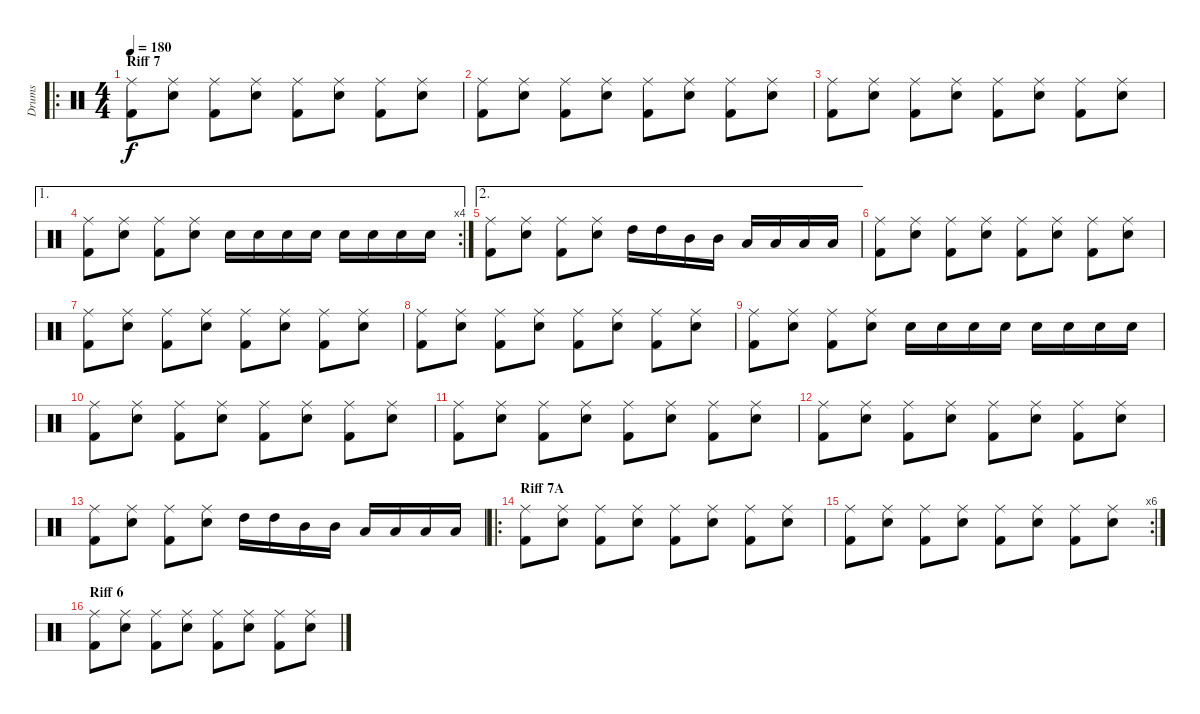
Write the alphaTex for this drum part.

\track ("Drums" "Drums") {instrument percussion}
\staff {score}
\articulation defaults
\ro
\ts (4 4)
\section ("" "Riff 7")
\tempo 180
\clef neutral
\ks c
("Ride (middle)" "Kick (hit) 2").8{dy f} ("Ride (middle)" "Snare (hit) 2").8 ("Ride (middle)" "Kick (hit) 2").8 ("Ride (middle)" "Snare (hit) 2").8 ("Ride (middle)" "Kick (hit) 2").8 ("Ride (middle)" "Snare (hit) 2").8 ("Ride (middle)" "Kick (hit) 2").8 ("Ride (middle)" "Snare (hit) 2").8 |
("Ride (middle)" "Kick (hit) 2").8 ("Ride (middle)" "Snare (hit) 2").8 ("Ride (middle)" "Kick (hit) 2").8 ("Ride (middle)" "Snare (hit) 2").8 ("Ride (middle)" "Kick (hit) 2").8 ("Ride (middle)" "Snare (hit) 2").8 ("Ride (middle)" "Kick (hit) 2").8 ("Ride (middle)" "Snare (hit) 2").8 |
("Ride (middle)" "Kick (hit) 2").8 ("Ride (middle)" "Snare (hit) 2").8 ("Ride (middle)" "Kick (hit) 2").8 ("Ride (middle)" "Snare (hit) 2").8 ("Ride (middle)" "Kick (hit) 2").8 ("Ride (middle)" "Snare (hit) 2").8 ("Ride (middle)" "Kick (hit) 2").8 ("Ride (middle)" "Snare (hit) 2").8 |
\ae 1
\rc 4
("Ride (middle)" "Kick (hit) 2").8 ("Ride (middle)" "Snare (hit) 2").8 ("Ride (middle)" "Kick (hit) 2").8 ("Ride (middle)" "Snare (hit) 2").8 "Snare (hit) 2".16 "Snare (hit) 2".16 "Snare (hit) 2".16 "Snare (hit) 2".16 "Snare (hit) 2".16 "Snare (hit) 2".16 "Snare (hit) 2".16 "Snare (hit) 2".16 |
\ae 2
("Ride (middle)" "Kick (hit) 2").8 ("Ride (middle)" "Snare (hit) 2").8 ("Ride (middle)" "Kick (hit) 2").8 ("Ride (middle)" "Snare (hit) 2").8 "High Tom (hit)".16 "High Tom (hit)".16 "Mid Tom (hit)".16 "Mid Tom (hit)".16 "Low Tom (hit)".16 "Low Tom (hit)".16 "Low Tom (hit)".16 "Low Tom (hit)".16 |
("Ride (middle)" "Kick (hit) 2").8 ("Ride (middle)" "Snare (hit) 2").8 ("Ride (middle)" "Kick (hit) 2").8 ("Ride (middle)" "Snare (hit) 2").8 ("Ride (middle)" "Kick (hit) 2").8 ("Ride (middle)" "Snare (hit) 2").8 ("Ride (middle)" "Kick (hit) 2").8 ("Ride (middle)" "Snare (hit) 2").8 |
("Ride (middle)" "Kick (hit) 2").8 ("Ride (middle)" "Snare (hit) 2").8 ("Ride (middle)" "Kick (hit) 2").8 ("Ride (middle)" "Snare (hit) 2").8 ("Ride (middle)" "Kick (hit) 2").8 ("Ride (middle)" "Snare (hit) 2").8 ("Ride (middle)" "Kick (hit) 2").8 ("Ride (middle)" "Snare (hit) 2").8 |
("Ride (middle)" "Kick (hit) 2").8 ("Ride (middle)" "Snare (hit) 2").8 ("Ride (middle)" "Kick (hit) 2").8 ("Ride (middle)" "Snare (hit) 2").8 ("Ride (middle)" "Kick (hit) 2").8 ("Ride (middle)" "Snare (hit) 2").8 ("Ride (middle)" "Kick (hit) 2").8 ("Ride (middle)" "Snare (hit) 2").8 |
("Ride (middle)" "Kick (hit) 2").8 ("Ride (middle)" "Snare (hit) 2").8 ("Ride (middle)" "Kick (hit) 2").8 ("Ride (middle)" "Snare (hit) 2").8 "Snare (hit) 2".16 "Snare (hit) 2".16 "Snare (hit) 2".16 "Snare (hit) 2".16 "Snare (hit) 2".16 "Snare (hit) 2".16 "Snare (hit) 2".16 "Snare (hit) 2".16 |
("Ride (middle)" "Kick (hit) 2").8 ("Ride (middle)" "Snare (hit) 2").8 ("Ride (middle)" "Kick (hit) 2").8 ("Ride (middle)" "Snare (hit) 2").8 ("Ride (middle)" "Kick (hit) 2").8 ("Ride (middle)" "Snare (hit) 2").8 ("Ride (middle)" "Kick (hit) 2").8 ("Ride (middle)" "Snare (hit) 2").8 |
("Ride (middle)" "Kick (hit) 2").8 ("Ride (middle)" "Snare (hit) 2").8 ("Ride (middle)" "Kick (hit) 2").8 ("Ride (middle)" "Snare (hit) 2").8 ("Ride (middle)" "Kick (hit) 2").8 ("Ride (middle)" "Snare (hit) 2").8 ("Ride (middle)" "Kick (hit) 2").8 ("Ride (middle)" "Snare (hit) 2").8 |
("Ride (middle)" "Kick (hit) 2").8 ("Ride (middle)" "Snare (hit) 2").8 ("Ride (middle)" "Kick (hit) 2").8 ("Ride (middle)" "Snare (hit) 2").8 ("Ride (middle)" "Kick (hit) 2").8 ("Ride (middle)" "Snare (hit) 2").8 ("Ride (middle)" "Kick (hit) 2").8 ("Ride (middle)" "Snare (hit) 2").8 |
("Ride (middle)" "Kick (hit) 2").8 ("Ride (middle)" "Snare (hit) 2").8 ("Ride (middle)" "Kick (hit) 2").8 ("Ride (middle)" "Snare (hit) 2").8 "High Tom (hit)".16 "High Tom (hit)".16 "Mid Tom (hit)".16 "Mid Tom (hit)".16 "Low Tom (hit)".16 "Low Tom (hit)".16 "Low Tom (hit)".16 "Low Tom (hit)".16 |
\ro
\section ("" "Riff 7A")
("Ride (middle)" "Kick (hit) 2").8 ("Ride (middle)" "Snare (hit) 2").8 ("Ride (middle)" "Kick (hit) 2").8 ("Ride (middle)" "Snare (hit) 2").8 ("Ride (middle)" "Kick (hit) 2").8 ("Ride (middle)" "Snare (hit) 2").8 ("Ride (middle)" "Kick (hit) 2").8 ("Ride (middle)" "Snare (hit) 2").8 |
\rc 6
("Ride (middle)" "Kick (hit) 2").8 ("Ride (middle)" "Snare (hit) 2").8 ("Ride (middle)" "Kick (hit) 2").8 ("Ride (middle)" "Snare (hit) 2").8 ("Ride (middle)" "Kick (hit) 2").8 ("Ride (middle)" "Snare (hit) 2").8 ("Ride (middle)" "Kick (hit) 2").8 ("Ride (middle)" "Snare (hit) 2").8 |
\section ("" "Riff 6")
("Ride (middle)" "Kick (hit) 2").8 ("Ride (middle)" "Snare (hit) 2").8 ("Ride (middle)" "Kick (hit) 2").8 ("Ride (middle)" "Snare (hit) 2").8 ("Ride (middle)" "Kick (hit) 2").8 ("Ride (middle)" "Snare (hit) 2").8 ("Ride (middle)" "Kick (hit) 2").8 ("Ride (middle)" "Snare (hit) 2").8
